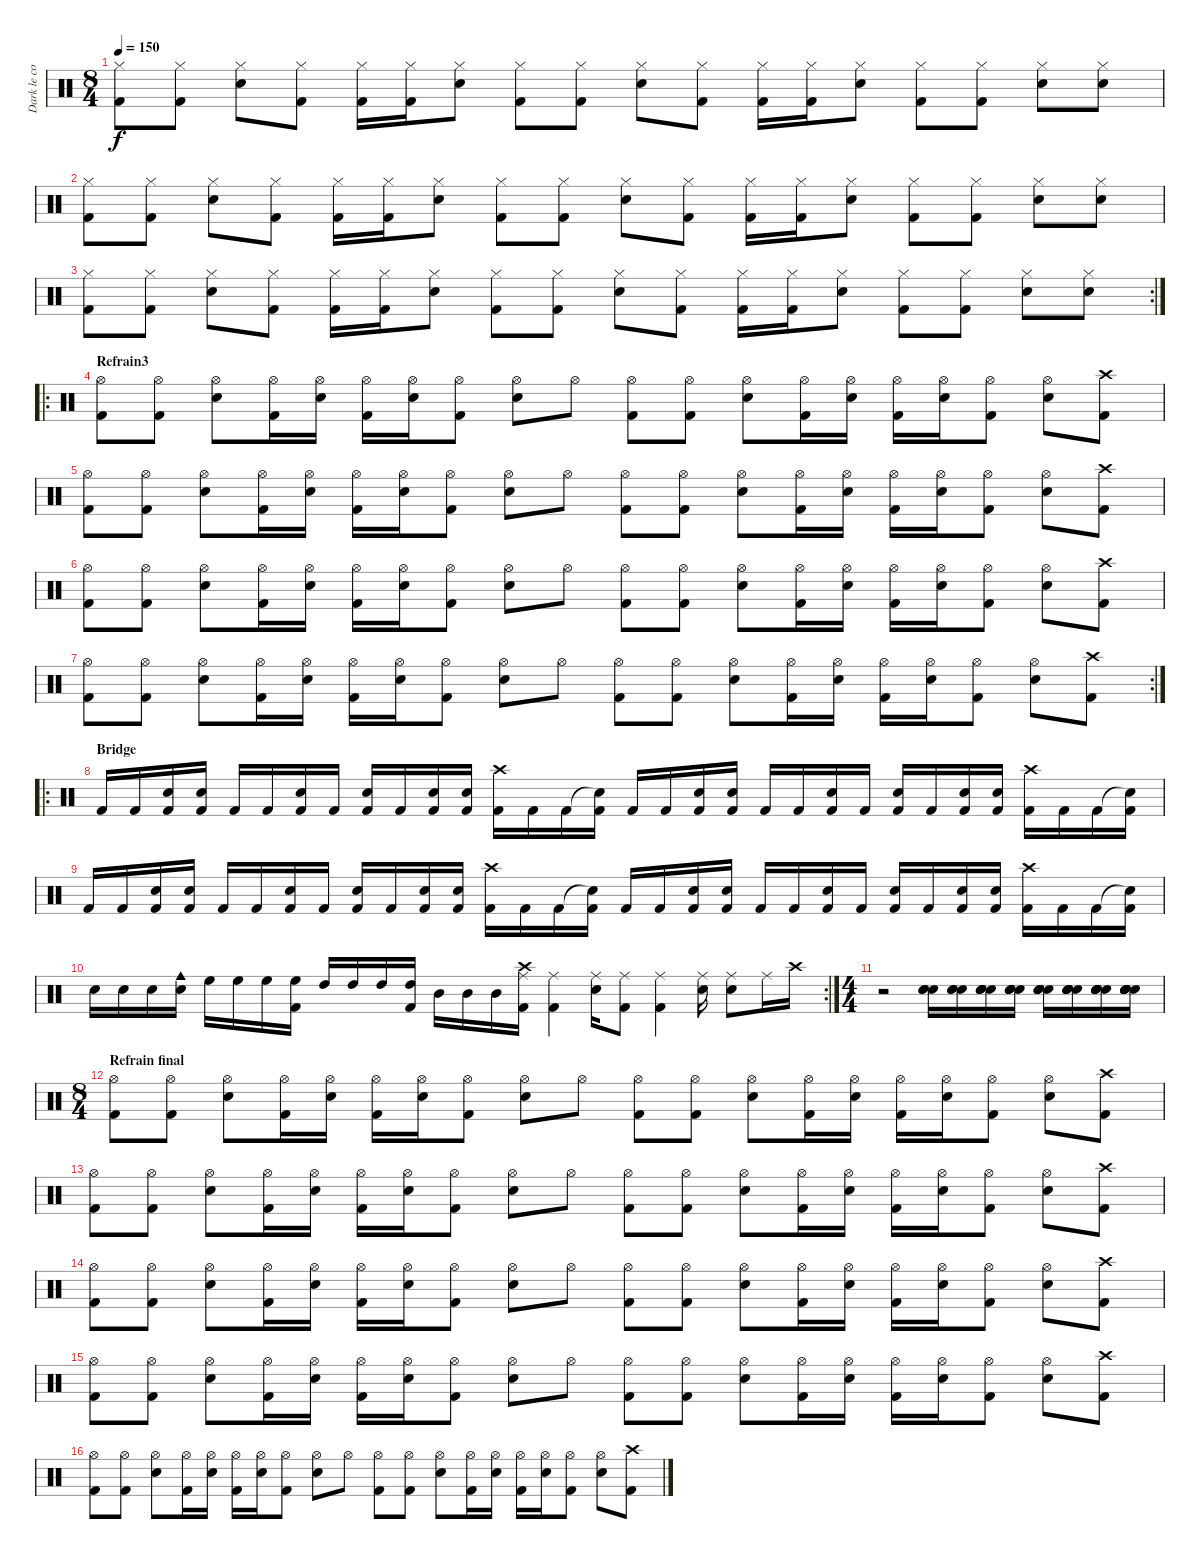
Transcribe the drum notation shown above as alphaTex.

\track ("Dark le coquet" "Dark le co") {instrument percussion}
\staff {score}
\articulation defaults
\ts (8 4)
\tempo 150
\clef neutral
\ks c
("Hi-Hat (closed)" "Kick (hit) 2").8{dy f} ("Hi-Hat (closed)" "Kick (hit) 2").8 ("Hi-Hat (closed)" "Snare (hit) 2").8 ("Hi-Hat (closed)" "Kick (hit) 2").8 ("Hi-Hat (closed)" "Kick (hit) 2").16 ("Hi-Hat (closed)" "Kick (hit) 2").16 ("Hi-Hat (closed)" "Snare (hit) 2").8 ("Hi-Hat (closed)" "Kick (hit) 2").8 ("Hi-Hat (closed)" "Kick (hit) 2").8 ("Hi-Hat (closed)" "Snare (hit) 2").8 ("Hi-Hat (closed)" "Kick (hit) 2").8 ("Hi-Hat (closed)" "Kick (hit) 2").16 ("Hi-Hat (closed)" "Kick (hit) 2").16 ("Hi-Hat (closed)" "Snare (hit) 2").8 ("Hi-Hat (closed)" "Kick (hit) 2").8 ("Hi-Hat (closed)" "Kick (hit) 2").8 ("Hi-Hat (closed)" "Snare (hit) 2").8 ("Hi-Hat (closed)" "Snare (hit) 2").8 |
("Hi-Hat (closed)" "Kick (hit) 2").8 ("Hi-Hat (closed)" "Kick (hit) 2").8 ("Hi-Hat (closed)" "Snare (hit) 2").8 ("Hi-Hat (closed)" "Kick (hit) 2").8 ("Hi-Hat (closed)" "Kick (hit) 2").16 ("Hi-Hat (closed)" "Kick (hit) 2").16 ("Hi-Hat (closed)" "Snare (hit) 2").8 ("Hi-Hat (closed)" "Kick (hit) 2").8 ("Hi-Hat (closed)" "Kick (hit) 2").8 ("Hi-Hat (closed)" "Snare (hit) 2").8 ("Hi-Hat (closed)" "Kick (hit) 2").8 ("Hi-Hat (closed)" "Kick (hit) 2").16 ("Hi-Hat (closed)" "Kick (hit) 2").16 ("Hi-Hat (closed)" "Snare (hit) 2").8 ("Hi-Hat (closed)" "Kick (hit) 2").8 ("Hi-Hat (closed)" "Kick (hit) 2").8 ("Hi-Hat (closed)" "Snare (hit) 2").8 ("Hi-Hat (closed)" "Snare (hit) 2").8 |
\rc 2
("Hi-Hat (closed)" "Kick (hit) 2").8 ("Hi-Hat (closed)" "Kick (hit) 2").8 ("Hi-Hat (closed)" "Snare (hit) 2").8 ("Hi-Hat (closed)" "Kick (hit) 2").8 ("Hi-Hat (closed)" "Kick (hit) 2").16 ("Hi-Hat (closed)" "Kick (hit) 2").16 ("Hi-Hat (closed)" "Snare (hit) 2").8 ("Hi-Hat (closed)" "Kick (hit) 2").8 ("Hi-Hat (closed)" "Kick (hit) 2").8 ("Hi-Hat (closed)" "Snare (hit) 2").8 ("Hi-Hat (closed)" "Kick (hit) 2").8 ("Hi-Hat (closed)" "Kick (hit) 2").16 ("Hi-Hat (closed)" "Kick (hit) 2").16 ("Hi-Hat (closed)" "Snare (hit) 2").8 ("Hi-Hat (closed)" "Kick (hit) 2").8 ("Hi-Hat (closed)" "Kick (hit) 2").8 ("Hi-Hat (closed)" "Snare (hit) 2").8 ("Hi-Hat (closed)" "Snare (hit) 2").8 |
\ro
\section ("" "Refrain3")
("Hi-Hat (open)" "Kick (hit) 2").8 ("Hi-Hat (open)" "Kick (hit) 2").8 ("Hi-Hat (open)" "Snare (hit) 2").8 ("Hi-Hat (open)" "Kick (hit) 2").16 ("Hi-Hat (open)" "Snare (hit) 2").16 ("Hi-Hat (open)" "Kick (hit) 2").16 ("Hi-Hat (open)" "Snare (hit) 2").16 ("Hi-Hat (open)" "Kick (hit) 2").8 ("Hi-Hat (open)" "Snare (hit) 2").8 "Hi-Hat (open)".8 ("Hi-Hat (open)" "Kick (hit) 2").8 ("Hi-Hat (open)" "Kick (hit) 2").8 ("Hi-Hat (open)" "Snare (hit) 2").8 ("Hi-Hat (open)" "Kick (hit) 2").16 ("Hi-Hat (open)" "Snare (hit) 2").16 ("Hi-Hat (open)" "Kick (hit) 2").16 ("Hi-Hat (open)" "Snare (hit) 2").16 ("Hi-Hat (open)" "Kick (hit) 2").8 ("Hi-Hat (open)" "Snare (hit) 2").8 ("Crash high (hit)" "Kick (hit) 2").8 |
("Hi-Hat (open)" "Kick (hit) 2").8 ("Hi-Hat (open)" "Kick (hit) 2").8 ("Hi-Hat (open)" "Snare (hit) 2").8 ("Hi-Hat (open)" "Kick (hit) 2").16 ("Hi-Hat (open)" "Snare (hit) 2").16 ("Hi-Hat (open)" "Kick (hit) 2").16 ("Hi-Hat (open)" "Snare (hit) 2").16 ("Hi-Hat (open)" "Kick (hit) 2").8 ("Hi-Hat (open)" "Snare (hit) 2").8 "Hi-Hat (open)".8 ("Hi-Hat (open)" "Kick (hit) 2").8 ("Hi-Hat (open)" "Kick (hit) 2").8 ("Hi-Hat (open)" "Snare (hit) 2").8 ("Hi-Hat (open)" "Kick (hit) 2").16 ("Hi-Hat (open)" "Snare (hit) 2").16 ("Hi-Hat (open)" "Kick (hit) 2").16 ("Hi-Hat (open)" "Snare (hit) 2").16 ("Hi-Hat (open)" "Kick (hit) 2").8 ("Hi-Hat (open)" "Snare (hit) 2").8 ("Crash high (hit)" "Kick (hit) 2").8 |
("Hi-Hat (open)" "Kick (hit) 2").8 ("Hi-Hat (open)" "Kick (hit) 2").8 ("Hi-Hat (open)" "Snare (hit) 2").8 ("Hi-Hat (open)" "Kick (hit) 2").16 ("Hi-Hat (open)" "Snare (hit) 2").16 ("Hi-Hat (open)" "Kick (hit) 2").16 ("Hi-Hat (open)" "Snare (hit) 2").16 ("Hi-Hat (open)" "Kick (hit) 2").8 ("Hi-Hat (open)" "Snare (hit) 2").8 "Hi-Hat (open)".8 ("Hi-Hat (open)" "Kick (hit) 2").8 ("Hi-Hat (open)" "Kick (hit) 2").8 ("Hi-Hat (open)" "Snare (hit) 2").8 ("Hi-Hat (open)" "Kick (hit) 2").16 ("Hi-Hat (open)" "Snare (hit) 2").16 ("Hi-Hat (open)" "Kick (hit) 2").16 ("Hi-Hat (open)" "Snare (hit) 2").16 ("Hi-Hat (open)" "Kick (hit) 2").8 ("Hi-Hat (open)" "Snare (hit) 2").8 ("Crash high (hit)" "Kick (hit) 2").8 |
\rc 2
("Hi-Hat (open)" "Kick (hit) 2").8 ("Hi-Hat (open)" "Kick (hit) 2").8 ("Hi-Hat (open)" "Snare (hit) 2").8 ("Hi-Hat (open)" "Kick (hit) 2").16 ("Hi-Hat (open)" "Snare (hit) 2").16 ("Hi-Hat (open)" "Kick (hit) 2").16 ("Hi-Hat (open)" "Snare (hit) 2").16 ("Hi-Hat (open)" "Kick (hit) 2").8 ("Hi-Hat (open)" "Snare (hit) 2").8 "Hi-Hat (open)".8 ("Hi-Hat (open)" "Kick (hit) 2").8 ("Hi-Hat (open)" "Kick (hit) 2").8 ("Hi-Hat (open)" "Snare (hit) 2").8 ("Hi-Hat (open)" "Kick (hit) 2").16 ("Hi-Hat (open)" "Snare (hit) 2").16 ("Hi-Hat (open)" "Kick (hit) 2").16 ("Hi-Hat (open)" "Snare (hit) 2").16 ("Hi-Hat (open)" "Kick (hit) 2").8 ("Hi-Hat (open)" "Snare (hit) 2").8 ("Crash high (hit)" "Kick (hit) 2").8 |
\ro
\section ("" "Bridge")
"Kick (hit) 2".16 "Kick (hit) 2".16 ("Snare (hit) 2" "Kick (hit) 2").16 ("Snare (hit) 2" "Kick (hit) 2").16 "Kick (hit) 2".16 "Kick (hit) 2".16 ("Snare (hit) 2" "Kick (hit) 2").16 "Kick (hit) 2".16 ("Snare (hit) 2" "Kick (hit) 2").16 "Kick (hit) 2".16 ("Snare (hit) 2" "Kick (hit) 2").16 ("Snare (hit) 2" "Kick (hit) 2").16 ("Crash high (hit)" "Kick (hit) 2").16 "Kick (hit) 2".16 "Kick (hit) 2".16 ("Snare (hit)"{t} "Kick (hit) 2").16 "Kick (hit) 2".16 "Kick (hit) 2".16 ("Snare (hit) 2" "Kick (hit) 2").16 ("Snare (hit) 2" "Kick (hit) 2").16 "Kick (hit) 2".16 "Kick (hit) 2".16 ("Snare (hit) 2" "Kick (hit) 2").16 "Kick (hit) 2".16 ("Snare (hit) 2" "Kick (hit) 2").16 "Kick (hit) 2".16 ("Snare (hit) 2" "Kick (hit) 2").16 ("Snare (hit) 2" "Kick (hit) 2").16 ("Crash high (hit)" "Kick (hit) 2").16 "Kick (hit) 2".16 "Kick (hit) 2".16 ("Snare (hit)"{t} "Kick (hit) 2").16 |
"Kick (hit) 2".16 "Kick (hit) 2".16 ("Snare (hit) 2" "Kick (hit) 2").16 ("Snare (hit) 2" "Kick (hit) 2").16 "Kick (hit) 2".16 "Kick (hit) 2".16 ("Snare (hit) 2" "Kick (hit) 2").16 "Kick (hit) 2".16 ("Snare (hit) 2" "Kick (hit) 2").16 "Kick (hit) 2".16 ("Snare (hit) 2" "Kick (hit) 2").16 ("Snare (hit) 2" "Kick (hit) 2").16 ("Crash high (hit)" "Kick (hit) 2").16 "Kick (hit) 2".16 "Kick (hit) 2".16 ("Snare (hit)"{t} "Kick (hit) 2").16 "Kick (hit) 2".16 "Kick (hit) 2".16 ("Snare (hit) 2" "Kick (hit) 2").16 ("Snare (hit) 2" "Kick (hit) 2").16 "Kick (hit) 2".16 "Kick (hit) 2".16 ("Snare (hit) 2" "Kick (hit) 2").16 "Kick (hit) 2".16 ("Snare (hit) 2" "Kick (hit) 2").16 "Kick (hit) 2".16 ("Snare (hit) 2" "Kick (hit) 2").16 ("Snare (hit) 2" "Kick (hit) 2").16 ("Crash high (hit)" "Kick (hit) 2").16 "Kick (hit) 2".16 "Kick (hit) 2".16 ("Snare (hit)"{t} "Kick (hit) 2").16 |
\rc 2 "Snare (hit) 2".16 "Snare (hit) 2".16 "Snare (hit) 2".16
("Snare (hit) 2" "Cowbell medium (hit)").16 "High Floor Tom (hit)".16 "High Floor Tom (hit)".16 "High Floor Tom (hit)".16 ("High Floor Tom (hit)" "Kick (hit) 2").16 "High Tom (hit)".16 "High Tom (hit)".16 "High Tom (hit)".16 ("High Tom (hit)" "Kick (hit) 2").16 "Mid Tom (hit)".16 "Mid Tom (hit)".16 "Mid Tom (hit)".16 ("Ride (middle)" "Crash high (hit)" "Kick (hit) 2").16 ("Ride (middle)" "Kick (hit) 2").4 ("Ride (middle)" "Snare (hit) 2").16 ("Ride (middle)" "Kick (hit) 2").8 ("Kick (hit) 2" "Ride (middle)").4 ("Ride (middle)" "Snare (hit) 2").16 ("Ride (middle)" "Snare (hit) 2").8 "Ride (middle)".16 "Crash high (hit)".16 |
\ts (4 4)
r.2 ("Snare (hit) 2" "Snare (hit) 2" "Snare (hit) 2").16 ("Snare (hit) 2" "Snare (hit) 2" "Snare (hit) 2").16 ("Snare (hit) 2" "Snare (hit) 2" "Snare (hit) 2" "Snare (hit) 2").16 ("Snare (hit) 2" "Snare (hit) 2" "Snare (hit) 2" "Snare (hit) 2").16 ("Snare (hit) 2" "Snare (hit) 2" "Snare (hit) 2" "Snare (hit) 2" "Snare (hit) 2").16 ("Snare (hit) 2" "Snare (hit) 2" "Snare (hit) 2" "Snare (hit) 2" "Snare (hit) 2").16 ("Snare (hit) 2" "Snare (hit) 2" "Snare (hit) 2" "Snare (hit) 2" "Snare (hit) 2" "Snare (hit) 2").16 ("Snare (hit) 2" "Snare (hit) 2" "Snare (hit) 2" "Snare (hit) 2" "Snare (hit) 2" "Snare (hit) 2").16 |
\ts (8 4)
\section ("" "Refrain final")
("Hi-Hat (open)" "Kick (hit) 2").8 ("Hi-Hat (open)" "Kick (hit) 2").8 ("Hi-Hat (open)" "Snare (hit) 2").8 ("Hi-Hat (open)" "Kick (hit) 2").16 ("Hi-Hat (open)" "Snare (hit) 2").16 ("Hi-Hat (open)" "Kick (hit) 2").16 ("Hi-Hat (open)" "Snare (hit) 2").16 ("Hi-Hat (open)" "Kick (hit) 2").8 ("Hi-Hat (open)" "Snare (hit) 2").8 "Hi-Hat (open)".8 ("Hi-Hat (open)" "Kick (hit) 2").8 ("Hi-Hat (open)" "Kick (hit) 2").8 ("Hi-Hat (open)" "Snare (hit) 2").8 ("Hi-Hat (open)" "Kick (hit) 2").16 ("Hi-Hat (open)" "Snare (hit) 2").16 ("Hi-Hat (open)" "Kick (hit) 2").16 ("Hi-Hat (open)" "Snare (hit) 2").16 ("Hi-Hat (open)" "Kick (hit) 2").8 ("Hi-Hat (open)" "Snare (hit) 2").8 ("Crash high (hit)" "Kick (hit) 2").8 |
("Hi-Hat (open)" "Kick (hit) 2").8 ("Hi-Hat (open)" "Kick (hit) 2").8 ("Hi-Hat (open)" "Snare (hit) 2").8 ("Hi-Hat (open)" "Kick (hit) 2").16 ("Hi-Hat (open)" "Snare (hit) 2").16 ("Hi-Hat (open)" "Kick (hit) 2").16 ("Hi-Hat (open)" "Snare (hit) 2").16 ("Hi-Hat (open)" "Kick (hit) 2").8 ("Hi-Hat (open)" "Snare (hit) 2").8 "Hi-Hat (open)".8 ("Hi-Hat (open)" "Kick (hit) 2").8 ("Hi-Hat (open)" "Kick (hit) 2").8 ("Hi-Hat (open)" "Snare (hit) 2").8 ("Hi-Hat (open)" "Kick (hit) 2").16 ("Hi-Hat (open)" "Snare (hit) 2").16 ("Hi-Hat (open)" "Kick (hit) 2").16 ("Hi-Hat (open)" "Snare (hit) 2").16 ("Hi-Hat (open)" "Kick (hit) 2").8 ("Hi-Hat (open)" "Snare (hit) 2").8 ("Crash high (hit)" "Kick (hit) 2").8 |
("Hi-Hat (open)" "Kick (hit) 2").8 ("Hi-Hat (open)" "Kick (hit) 2").8 ("Hi-Hat (open)" "Snare (hit) 2").8 ("Hi-Hat (open)" "Kick (hit) 2").16 ("Hi-Hat (open)" "Snare (hit) 2").16 ("Hi-Hat (open)" "Kick (hit) 2").16 ("Hi-Hat (open)" "Snare (hit) 2").16 ("Hi-Hat (open)" "Kick (hit) 2").8 ("Hi-Hat (open)" "Snare (hit) 2").8 "Hi-Hat (open)".8 ("Hi-Hat (open)" "Kick (hit) 2").8 ("Hi-Hat (open)" "Kick (hit) 2").8 ("Hi-Hat (open)" "Snare (hit) 2").8 ("Hi-Hat (open)" "Kick (hit) 2").16 ("Hi-Hat (open)" "Snare (hit) 2").16 ("Hi-Hat (open)" "Kick (hit) 2").16 ("Hi-Hat (open)" "Snare (hit) 2").16 ("Hi-Hat (open)" "Kick (hit) 2").8 ("Hi-Hat (open)" "Snare (hit) 2").8 ("Crash high (hit)" "Kick (hit) 2").8 |
("Hi-Hat (open)" "Kick (hit) 2").8 ("Hi-Hat (open)" "Kick (hit) 2").8 ("Hi-Hat (open)" "Snare (hit) 2").8 ("Hi-Hat (open)" "Kick (hit) 2").16 ("Hi-Hat (open)" "Snare (hit) 2").16 ("Hi-Hat (open)" "Kick (hit) 2").16 ("Hi-Hat (open)" "Snare (hit) 2").16 ("Hi-Hat (open)" "Kick (hit) 2").8 ("Hi-Hat (open)" "Snare (hit) 2").8 "Hi-Hat (open)".8 ("Hi-Hat (open)" "Kick (hit) 2").8 ("Hi-Hat (open)" "Kick (hit) 2").8 ("Hi-Hat (open)" "Snare (hit) 2").8 ("Hi-Hat (open)" "Kick (hit) 2").16 ("Hi-Hat (open)" "Snare (hit) 2").16 ("Hi-Hat (open)" "Kick (hit) 2").16 ("Hi-Hat (open)" "Snare (hit) 2").16 ("Hi-Hat (open)" "Kick (hit) 2").8 ("Hi-Hat (open)" "Snare (hit) 2").8 ("Crash high (hit)" "Kick (hit) 2").8 |
("Hi-Hat (open)" "Kick (hit) 2").8 ("Hi-Hat (open)" "Kick (hit) 2").8 ("Hi-Hat (open)" "Snare (hit) 2").8 ("Hi-Hat (open)" "Kick (hit) 2").16 ("Hi-Hat (open)" "Snare (hit) 2").16 ("Hi-Hat (open)" "Kick (hit) 2").16 ("Hi-Hat (open)" "Snare (hit) 2").16 ("Hi-Hat (open)" "Kick (hit) 2").8 ("Hi-Hat (open)" "Snare (hit) 2").8 "Hi-Hat (open)".8 ("Hi-Hat (open)" "Kick (hit) 2").8 ("Hi-Hat (open)" "Kick (hit) 2").8 ("Hi-Hat (open)" "Snare (hit) 2").8 ("Hi-Hat (open)" "Kick (hit) 2").16 ("Hi-Hat (open)" "Snare (hit) 2").16 ("Hi-Hat (open)" "Kick (hit) 2").16 ("Hi-Hat (open)" "Snare (hit) 2").16 ("Hi-Hat (open)" "Kick (hit) 2").8 ("Hi-Hat (open)" "Snare (hit) 2").8 ("Crash high (hit)" "Kick (hit) 2").8
